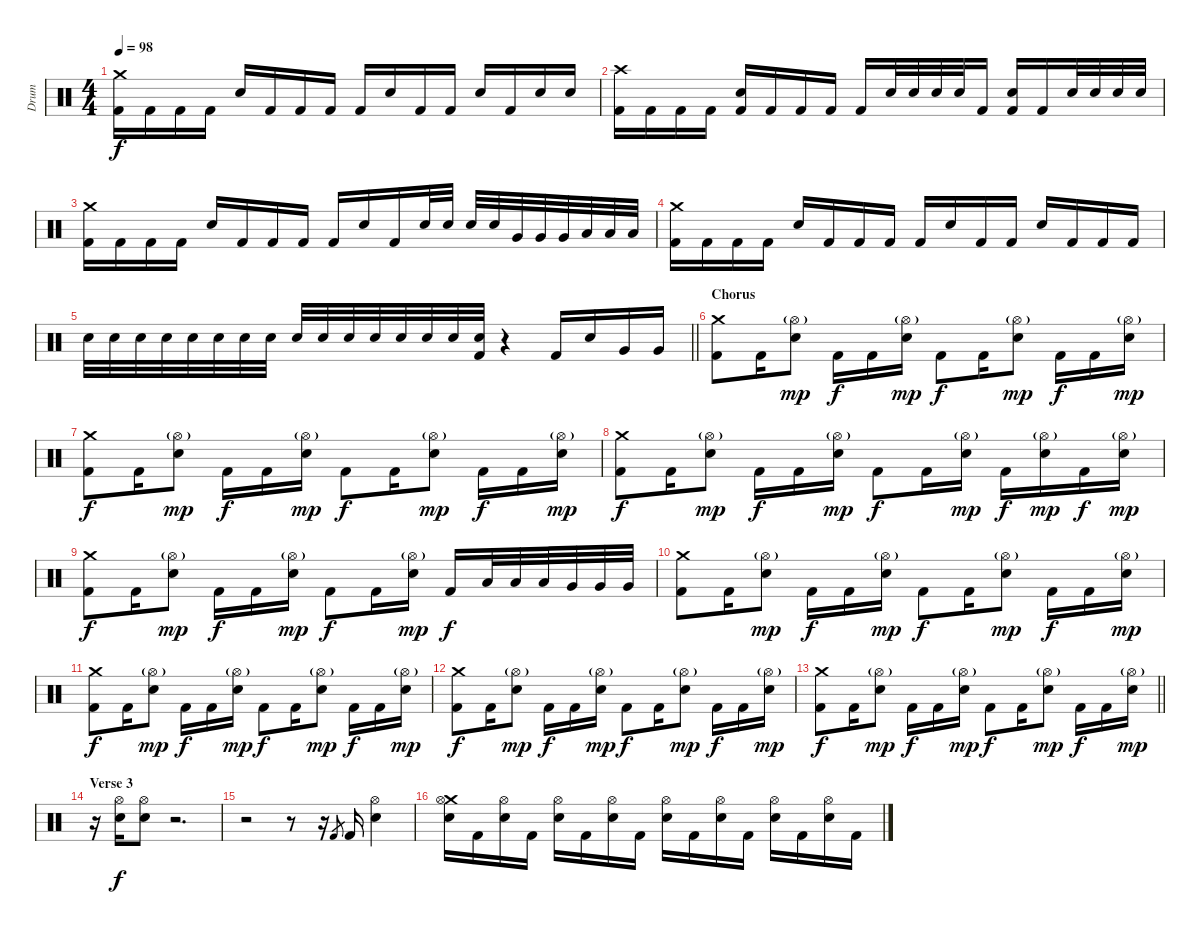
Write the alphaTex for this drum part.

\track ("Drum" "Drum") {instrument percussion}
\staff {score}
\articulation defaults
\ts (4 4)
\tempo 98
\clef neutral
\ks c
("Crash medium (hit)" "Kick (hit) 2").16{dy f} "Kick (hit) 2".16 "Kick (hit) 2".16 "Kick (hit) 2".16 "Electric Snare (hit)".16 "Kick (hit) 2".16 "Kick (hit) 2".16 "Kick (hit) 2".16 "Kick (hit) 2".16 "Electric Snare (hit)".16 "Kick (hit) 2".16 "Kick (hit) 2".16 "Electric Snare (hit)".16 "Kick (hit) 2".16 "Electric Snare (hit)".16 "Electric Snare (hit)".16 |
("Crash high (hit)" "Kick (hit) 2").16 "Kick (hit) 2".16 "Kick (hit) 2".16 "Kick (hit) 2".16 ("Electric Snare (hit)" "Kick (hit) 2").16 "Kick (hit) 2".16 "Kick (hit) 2".16 "Kick (hit) 2".16 "Kick (hit) 2".16 "Electric Snare (hit)".32 "Electric Snare (hit)".32 "Electric Snare (hit)".32 "Electric Snare (hit)".32 "Kick (hit) 2".16 ("Electric Snare (hit)" "Kick (hit) 2").16 "Kick (hit) 2".16 "Electric Snare (hit)".32 "Electric Snare (hit)".32 "Electric Snare (hit)".32 "Electric Snare (hit)".32 |
("Crash medium (hit)" "Kick (hit) 2").16 "Kick (hit) 2".16 "Kick (hit) 2".16 "Kick (hit) 2".16 "Electric Snare (hit)".16 "Kick (hit) 2".16 "Kick (hit) 2".16 "Kick (hit) 2".16 "Kick (hit) 2".16 "Electric Snare (hit)".16 "Kick (hit) 2".16 "Electric Snare (hit)".32 "Electric Snare (hit)".32 "Electric Snare (hit)".32 "Electric Snare (hit)".32 "Very Low Tom (hit)".32 "Very Low Tom (hit)".32 "Very Low Tom (hit)".32 "Low Floor Tom (hit)".32 "Low Floor Tom (hit)".32 "Low Floor Tom (hit)".32 |
("Crash medium (hit)" "Kick (hit) 2").16 "Kick (hit) 2".16 "Kick (hit) 2".16 "Kick (hit) 2".16 "Electric Snare (hit)".16 "Kick (hit) 2".16 "Kick (hit) 2".16 "Kick (hit) 2".16 "Kick (hit) 2".16 "Electric Snare (hit)".16 "Kick (hit) 2".16 "Kick (hit) 2".16 "Electric Snare (hit)".16 "Kick (hit) 2".16 "Kick (hit) 2".16 "Kick (hit) 2".16 |
\barLineRight lightlight "Electric Snare (hit)".32 "Electric Snare (hit)".32 "Electric Snare (hit)".32 "Electric Snare (hit)".32 "Electric Snare (hit)".32 "Electric Snare (hit)".32 "Electric Snare (hit)".32 "Electric Snare (hit)".32 "Electric Snare (hit)".32 "Electric Snare (hit)".32 "Electric Snare (hit)".32 "Electric Snare (hit)".32 "Electric Snare (hit)".32 "Electric Snare (hit)".32 "Electric Snare (hit)".32
("Electric Snare (hit)" "Kick (hit) 2").32 r.4 "Kick (hit) 2".16 "Electric Snare (hit)".16 "Very Low Tom (hit)".16 "Very Low Tom (hit)".16 |
\section ("" "Chorus")
("Crash medium (hit)" "Kick (hit) 2").8 "Kick (hit) 2".16 ("Hi-Hat (open)"{g} "Electric Snare (hit)").8{dy mp} "Kick (hit) 2".16{dy f} "Kick (hit) 2".16 ("Hi-Hat (open)"{g} "Electric Snare (hit)").16{dy mp} "Kick (hit) 2".8{dy f} "Kick (hit) 2".16 ("Hi-Hat (open)"{g} "Electric Snare (hit)").8{dy mp} "Kick (hit) 2".16{dy f} "Kick (hit) 2".16 ("Hi-Hat (open)"{g} "Electric Snare (hit)").16{dy mp} |
("Crash medium (hit)" "Kick (hit) 2").8{dy f} "Kick (hit) 2".16 ("Hi-Hat (open)"{g} "Electric Snare (hit)").8{dy mp} "Kick (hit) 2".16{dy f} "Kick (hit) 2".16 ("Hi-Hat (open)"{g} "Electric Snare (hit)").16{dy mp} "Kick (hit) 2".8{dy f} "Kick (hit) 2".16 ("Hi-Hat (open)"{g} "Electric Snare (hit)").8{dy mp} "Kick (hit) 2".16{dy f} "Kick (hit) 2".16 ("Hi-Hat (open)"{g} "Electric Snare (hit)").16{dy mp} |
("Crash medium (hit)" "Kick (hit) 2").8{dy f} "Kick (hit) 2".16 ("Hi-Hat (open)"{g} "Electric Snare (hit)").8{dy mp} "Kick (hit) 2".16{dy f} "Kick (hit) 2".16 ("Hi-Hat (open)"{g} "Electric Snare (hit)").16{dy mp} "Kick (hit) 2".8{dy f} "Kick (hit) 2".16 ("Hi-Hat (open)"{g} "Electric Snare (hit)").16{dy mp} "Kick (hit) 2".16{dy f} ("Hi-Hat (open)"{g} "Electric Snare (hit)").16{dy mp} "Kick (hit) 2".16{dy f} ("Hi-Hat (open)"{g} "Electric Snare (hit)").16{dy mp} |
("Crash medium (hit)" "Kick (hit) 2").8{dy f} "Kick (hit) 2".16 ("Hi-Hat (open)"{g} "Electric Snare (hit)").8{dy mp} "Kick (hit) 2".16{dy f} "Kick (hit) 2".16 ("Hi-Hat (open)"{g} "Electric Snare (hit)").16{dy mp} "Kick (hit) 2".8{dy f} "Kick (hit) 2".16 ("Hi-Hat (open)"{g} "Electric Snare (hit)").16{dy mp} "Kick (hit) 2".16{dy f} "Low Tom (hit)".32 "Low Tom (hit)".32 "Low Tom (hit)".32 "Very Low Tom (hit)".32 "Very Low Tom (hit)".32 "Very Low Tom (hit)".32 |
("Crash medium (hit)" "Kick (hit) 2").8 "Kick (hit) 2".16 ("Hi-Hat (open)"{g} "Electric Snare (hit)").8{dy mp} "Kick (hit) 2".16{dy f} "Kick (hit) 2".16 ("Hi-Hat (open)"{g} "Electric Snare (hit)").16{dy mp} "Kick (hit) 2".8{dy f} "Kick (hit) 2".16 ("Hi-Hat (open)"{g} "Electric Snare (hit)").8{dy mp} "Kick (hit) 2".16{dy f} "Kick (hit) 2".16 ("Hi-Hat (open)"{g} "Electric Snare (hit)").16{dy mp} |
("Crash medium (hit)" "Kick (hit) 2").8{dy f} "Kick (hit) 2".16 ("Hi-Hat (open)"{g} "Electric Snare (hit)").8{dy mp} "Kick (hit) 2".16{dy f} "Kick (hit) 2".16 ("Hi-Hat (open)"{g} "Electric Snare (hit)").16{dy mp} "Kick (hit) 2".8{dy f} "Kick (hit) 2".16 ("Hi-Hat (open)"{g} "Electric Snare (hit)").8{dy mp} "Kick (hit) 2".16{dy f} "Kick (hit) 2".16 ("Hi-Hat (open)"{g} "Electric Snare (hit)").16{dy mp} |
("Crash medium (hit)" "Kick (hit) 2").8{dy f} "Kick (hit) 2".16 ("Hi-Hat (open)"{g} "Electric Snare (hit)").8{dy mp} "Kick (hit) 2".16{dy f} "Kick (hit) 2".16 ("Hi-Hat (open)"{g} "Electric Snare (hit)").16{dy mp} "Kick (hit) 2".8{dy f} "Kick (hit) 2".16 ("Hi-Hat (open)"{g} "Electric Snare (hit)").8{dy mp} "Kick (hit) 2".16{dy f} "Kick (hit) 2".16 ("Hi-Hat (open)"{g} "Electric Snare (hit)").16{dy mp} |
\barLineRight lightlight
("Crash medium (hit)" "Kick (hit) 2").8{dy f} "Kick (hit) 2".16 ("Hi-Hat (open)"{g} "Electric Snare (hit)").8{dy mp} "Kick (hit) 2".16{dy f} "Kick (hit) 2".16 ("Hi-Hat (open)"{g} "Electric Snare (hit)").16{dy mp} "Kick (hit) 2".8{dy f} "Kick (hit) 2".16 ("Hi-Hat (open)"{g} "Electric Snare (hit)").8{dy mp} "Kick (hit) 2".16{dy f} "Kick (hit) 2".16 ("Hi-Hat (open)"{g} "Electric Snare (hit)").16{dy mp} |
\section ("" "Verse 3")
r.16 ("Hi-Hat (open)" "Electric Snare (hit)").16{dy f} ("Hi-Hat (open)" "Electric Snare (hit)").8 r.2{d} |
r.2 r.8 r.16 "Kick (hit) 2".8{gr} "Kick (hit) 2".16 ("Hi-Hat (open)" "Electric Snare (hit)").4 |
("Crash medium (hit)" "Hi-Hat (open)" "Electric Snare (hit)").16 "Kick (hit) 2".16 ("Hi-Hat (open)" "Electric Snare (hit)").16 "Kick (hit) 2".16 ("Hi-Hat (open)" "Electric Snare (hit)").16 "Kick (hit) 2".16 ("Hi-Hat (open)" "Electric Snare (hit)").16 "Kick (hit) 2".16 ("Hi-Hat (open)" "Electric Snare (hit)").16 "Kick (hit) 2".16 ("Hi-Hat (open)" "Electric Snare (hit)").16 "Kick (hit) 2".16 ("Hi-Hat (open)" "Electric Snare (hit)").16 "Kick (hit) 2".16 ("Hi-Hat (open)" "Electric Snare (hit)").16 "Kick (hit) 2".16
